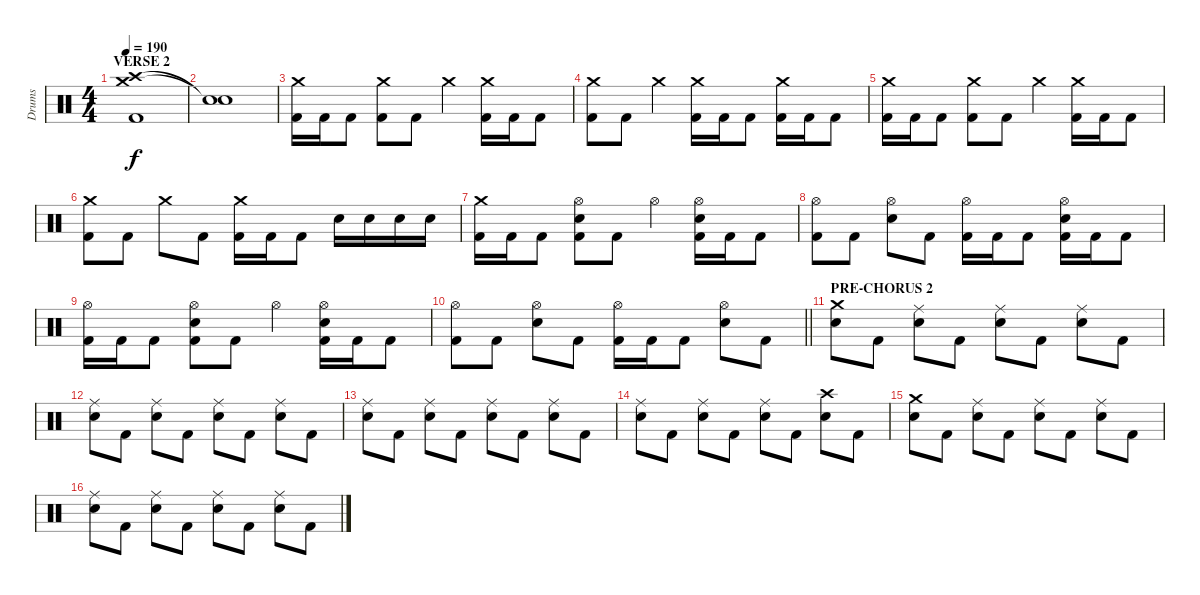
\track ("Drums" "Drums") {instrument percussion}
\staff {score}
\articulation defaults
\ts (4 4)
\section ("" "VERSE 2")
\tempo 190
\clef neutral
\ks c
("Crash medium (hit)" "Crash high (hit)" "Kick (hit) 2").1{dy f} |
("Snare (hit)"{t} "Snare (hit)"{t}).1 |
("Crash medium (hit)" "Kick (hit) 2").16 "Kick (hit) 2".16 "Kick (hit) 2".8 ("Crash medium (hit)" "Kick (hit) 2").8 "Kick (hit) 2".8 "Crash medium (hit)".4 ("Crash medium (hit)" "Kick (hit) 2").16 "Kick (hit) 2".16 "Kick (hit) 2".8 |
("Crash medium (hit)" "Kick (hit) 2").8 "Kick (hit) 2".8 "Crash medium (hit)".4 ("Crash medium (hit)" "Kick (hit) 2").16 "Kick (hit) 2".16 "Kick (hit) 2".8 ("Crash medium (hit)" "Kick (hit) 2").16 "Kick (hit) 2".16 "Kick (hit) 2".8 |
("Crash medium (hit)" "Kick (hit) 2").16 "Kick (hit) 2".16 "Kick (hit) 2".8 ("Crash medium (hit)" "Kick (hit) 2").8 "Kick (hit) 2".8 "Crash medium (hit)".4 ("Crash medium (hit)" "Kick (hit) 2").16 "Kick (hit) 2".16 "Kick (hit) 2".8 |
("Crash medium (hit)" "Kick (hit) 2").8 "Kick (hit) 2".8 "Crash medium (hit)".8 "Kick (hit) 2".8 ("Crash medium (hit)" "Kick (hit) 2").16 "Kick (hit) 2".16 "Kick (hit) 2".8 "Electric Snare (hit)".16 "Electric Snare (hit)".16 "Electric Snare (hit)".16 "Electric Snare (hit)".16 |
("Crash medium (hit)" "Kick (hit) 2").16 "Kick (hit) 2".16 "Kick (hit) 2".8 ("Hi-Hat (open)" "Electric Snare (hit)" "Kick (hit) 2").8 "Kick (hit) 2".8 "Hi-Hat (open)".4 ("Hi-Hat (open)" "Electric Snare (hit)" "Kick (hit) 2").16 "Kick (hit) 2".16 "Kick (hit) 2".8 |
("Hi-Hat (open)" "Kick (hit) 2").8 "Kick (hit) 2".8 ("Hi-Hat (open)" "Electric Snare (hit)").8 "Kick (hit) 2".8 ("Hi-Hat (open)" "Kick (hit) 2").16 "Kick (hit) 2".16 "Kick (hit) 2".8 ("Hi-Hat (open)" "Electric Snare (hit)" "Kick (hit) 2").16 "Kick (hit) 2".16 "Kick (hit) 2".8 |
("Hi-Hat (open)" "Kick (hit) 2").16 "Kick (hit) 2".16 "Kick (hit) 2".8 ("Hi-Hat (open)" "Electric Snare (hit)" "Kick (hit) 2").8 "Kick (hit) 2".8 "Hi-Hat (open)".4 ("Hi-Hat (open)" "Electric Snare (hit)" "Kick (hit) 2").16 "Kick (hit) 2".16 "Kick (hit) 2".8 |
\barLineRight lightlight
("Hi-Hat (open)" "Kick (hit) 2").8 "Kick (hit) 2".8 ("Hi-Hat (open)" "Electric Snare (hit)").8 "Kick (hit) 2".8 ("Hi-Hat (open)" "Kick (hit) 2").16 "Kick (hit) 2".16 "Kick (hit) 2".8 ("Hi-Hat (open)" "Electric Snare (hit)").8 "Kick (hit) 2".8 |
\section ("" "PRE-CHORUS 2")
("Crash medium (hit)" "Electric Snare (hit)").8 "Kick (hit) 2".8 ("Ride (middle)" "Electric Snare (hit)").8 "Kick (hit) 2".8 ("Ride (middle)" "Electric Snare (hit)").8 "Kick (hit) 2".8 ("Ride (middle)" "Electric Snare (hit)").8 "Kick (hit) 2".8 |
("Ride (middle)" "Electric Snare (hit)").8 "Kick (hit) 2".8 ("Ride (middle)" "Electric Snare (hit)").8 "Kick (hit) 2".8 ("Ride (middle)" "Electric Snare (hit)").8 "Kick (hit) 2".8 ("Ride (middle)" "Electric Snare (hit)").8 "Kick (hit) 2".8 |
("Ride (middle)" "Electric Snare (hit)").8 "Kick (hit) 2".8 ("Ride (middle)" "Electric Snare (hit)").8 "Kick (hit) 2".8 ("Ride (middle)" "Electric Snare (hit)").8 "Kick (hit) 2".8 ("Ride (middle)" "Electric Snare (hit)").8 "Kick (hit) 2".8 |
("Ride (middle)" "Electric Snare (hit)").8 "Kick (hit) 2".8 ("Ride (middle)" "Electric Snare (hit)").8 "Kick (hit) 2".8 ("Ride (middle)" "Electric Snare (hit)").8 "Kick (hit) 2".8 ("Crash high (hit)" "Electric Snare (hit)").8 "Kick (hit) 2".8 |
("Crash medium (hit)" "Electric Snare (hit)").8 "Kick (hit) 2".8 ("Ride (middle)" "Electric Snare (hit)").8 "Kick (hit) 2".8 ("Ride (middle)" "Electric Snare (hit)").8 "Kick (hit) 2".8 ("Ride (middle)" "Electric Snare (hit)").8 "Kick (hit) 2".8 |
("Ride (middle)" "Electric Snare (hit)").8 "Kick (hit) 2".8 ("Ride (middle)" "Electric Snare (hit)").8 "Kick (hit) 2".8 ("Ride (middle)" "Electric Snare (hit)").8 "Kick (hit) 2".8 ("Ride (middle)" "Electric Snare (hit)").8 "Kick (hit) 2".8
